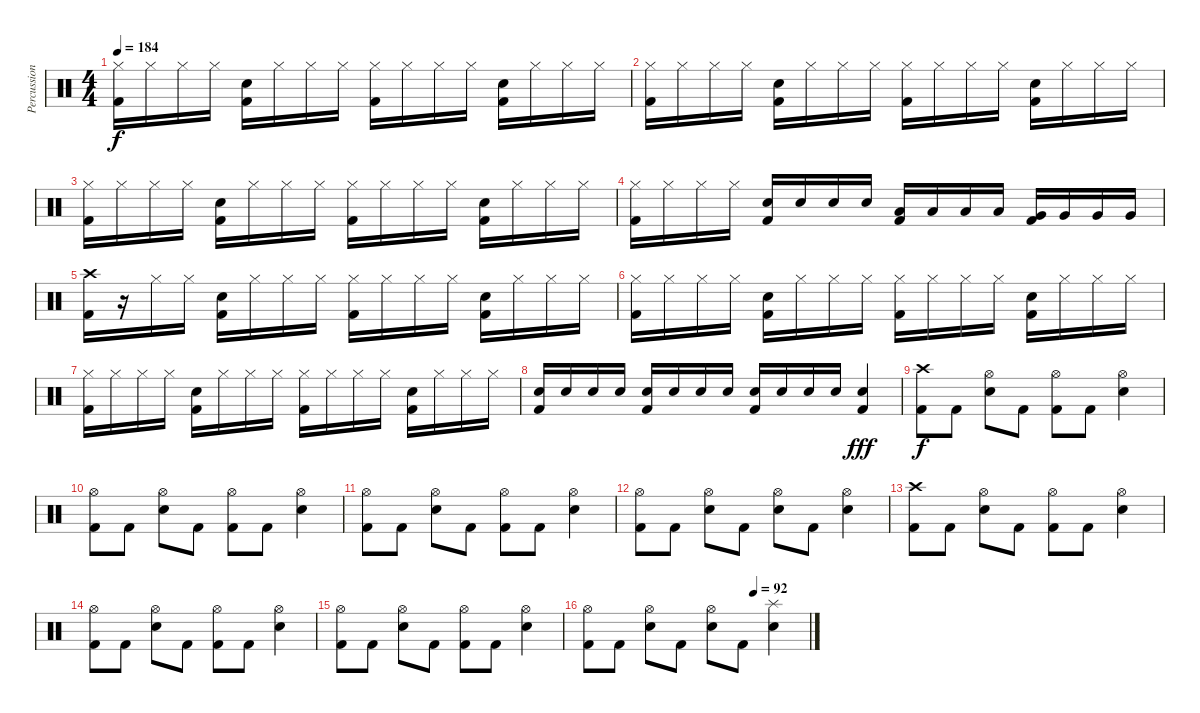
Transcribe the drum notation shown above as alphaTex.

\track ("Percussion" "Percussion") {instrument percussion}
\staff {score}
\articulation defaults
\ts (4 4)
\tempo 184
\clef neutral
\ks c
("Hi-Hat (closed)" "Kick (hit) 2").16{dy f} "Hi-Hat (closed)".16 "Hi-Hat (closed)".16 "Hi-Hat (closed)".16 ("Electric Snare (hit)" "Kick (hit) 2").16 "Hi-Hat (closed)".16 "Hi-Hat (closed)".16 "Hi-Hat (closed)".16 ("Hi-Hat (closed)" "Kick (hit) 2").16 "Hi-Hat (closed)".16 "Hi-Hat (closed)".16 "Hi-Hat (closed)".16 ("Electric Snare (hit)" "Kick (hit) 2").16 "Hi-Hat (closed)".16 "Hi-Hat (closed)".16 "Hi-Hat (closed)".16 |
("Hi-Hat (closed)" "Kick (hit) 2").16 "Hi-Hat (closed)".16 "Hi-Hat (closed)".16 "Hi-Hat (closed)".16 ("Electric Snare (hit)" "Kick (hit) 2").16 "Hi-Hat (closed)".16 "Hi-Hat (closed)".16 "Hi-Hat (closed)".16 ("Hi-Hat (closed)" "Kick (hit) 2").16 "Hi-Hat (closed)".16 "Hi-Hat (closed)".16 "Hi-Hat (closed)".16 ("Electric Snare (hit)" "Kick (hit) 2").16 "Hi-Hat (closed)".16 "Hi-Hat (closed)".16 "Hi-Hat (closed)".16 |
("Hi-Hat (closed)" "Kick (hit) 2").16 "Hi-Hat (closed)".16 "Hi-Hat (closed)".16 "Hi-Hat (closed)".16 ("Electric Snare (hit)" "Kick (hit) 2").16 "Hi-Hat (closed)".16 "Hi-Hat (closed)".16 "Hi-Hat (closed)".16 ("Hi-Hat (closed)" "Kick (hit) 2").16 "Hi-Hat (closed)".16 "Hi-Hat (closed)".16 "Hi-Hat (closed)".16 ("Electric Snare (hit)" "Kick (hit) 2").16 "Hi-Hat (closed)".16 "Hi-Hat (closed)".16 "Hi-Hat (closed)".16 |
("Hi-Hat (closed)" "Kick (hit) 2").16 "Hi-Hat (closed)".16 "Hi-Hat (closed)".16 "Hi-Hat (closed)".16 ("Electric Snare (hit)" "Kick (hit) 2").16 "Electric Snare (hit)".16 "Electric Snare (hit)".16 "Electric Snare (hit)".16 ("Low Tom (hit)" "Kick (hit) 2").16 "Low Tom (hit)".16 "Low Tom (hit)".16 "Low Tom (hit)".16 ("Very Low Tom (hit)" "Kick (hit) 2").16 "Very Low Tom (hit)".16 "Very Low Tom (hit)".16 "Very Low Tom (hit)".16 |
("Crash high (hit)" "Kick (hit) 2").16 r.16 "Hi-Hat (closed)".16 "Hi-Hat (closed)".16 ("Electric Snare (hit)" "Kick (hit) 2").16 "Hi-Hat (closed)".16 "Hi-Hat (closed)".16 "Hi-Hat (closed)".16 ("Hi-Hat (closed)" "Kick (hit) 2").16 "Hi-Hat (closed)".16 "Hi-Hat (closed)".16 "Hi-Hat (closed)".16 ("Electric Snare (hit)" "Kick (hit) 2").16 "Hi-Hat (closed)".16 "Hi-Hat (closed)".16 "Hi-Hat (closed)".16 |
("Hi-Hat (closed)" "Kick (hit) 2").16 "Hi-Hat (closed)".16 "Hi-Hat (closed)".16 "Hi-Hat (closed)".16 ("Electric Snare (hit)" "Kick (hit) 2").16 "Hi-Hat (closed)".16 "Hi-Hat (closed)".16 "Hi-Hat (closed)".16 ("Hi-Hat (closed)" "Kick (hit) 2").16 "Hi-Hat (closed)".16 "Hi-Hat (closed)".16 "Hi-Hat (closed)".16 ("Electric Snare (hit)" "Kick (hit) 2").16 "Hi-Hat (closed)".16 "Hi-Hat (closed)".16 "Hi-Hat (closed)".16 |
("Hi-Hat (closed)" "Kick (hit) 2").16 "Hi-Hat (closed)".16 "Hi-Hat (closed)".16 "Hi-Hat (closed)".16 ("Electric Snare (hit)" "Kick (hit) 2").16 "Hi-Hat (closed)".16 "Hi-Hat (closed)".16 "Hi-Hat (closed)".16 ("Hi-Hat (closed)" "Kick (hit) 2").16 "Hi-Hat (closed)".16 "Hi-Hat (closed)".16 "Hi-Hat (closed)".16 ("Electric Snare (hit)" "Kick (hit) 2").16 "Hi-Hat (closed)".16 "Hi-Hat (closed)".16 "Hi-Hat (closed)".16 |
("Electric Snare (hit)" "Kick (hit) 2").16 "Electric Snare (hit)".16 "Electric Snare (hit)".16 "Electric Snare (hit)".16 ("Electric Snare (hit)" "Kick (hit) 2").16 "Electric Snare (hit)".16 "Electric Snare (hit)".16 "Electric Snare (hit)".16 ("Electric Snare (hit)" "Kick (hit) 2").16 "Electric Snare (hit)".16 "Electric Snare (hit)".16 "Electric Snare (hit)".16 ("Electric Snare (hit)" "Kick (hit) 2").4{dy fff} |
("Crash high (hit)" "Kick (hit) 2").8{dy f} "Kick (hit) 2".8 ("Hi-Hat (open)" "Electric Snare (hit)").8 "Kick (hit) 2".8 ("Hi-Hat (open)" "Kick (hit) 2").8 "Kick (hit) 2".8 ("Hi-Hat (open)" "Electric Snare (hit)").4 |
("Hi-Hat (open)" "Kick (hit) 2").8 "Kick (hit) 2".8 ("Hi-Hat (open)" "Electric Snare (hit)").8 "Kick (hit) 2".8 ("Hi-Hat (open)" "Kick (hit) 2").8 "Kick (hit) 2".8 ("Hi-Hat (open)" "Electric Snare (hit)").4 |
("Hi-Hat (open)" "Kick (hit) 2").8 "Kick (hit) 2".8 ("Hi-Hat (open)" "Electric Snare (hit)").8 "Kick (hit) 2".8 ("Hi-Hat (open)" "Kick (hit) 2").8 "Kick (hit) 2".8 ("Hi-Hat (open)" "Electric Snare (hit)").4 |
("Hi-Hat (open)" "Kick (hit) 2").8 "Kick (hit) 2".8 ("Hi-Hat (open)" "Electric Snare (hit)").8 "Kick (hit) 2".8 ("Hi-Hat (open)" "Electric Snare (hit)").8 "Kick (hit) 2".8 ("Hi-Hat (open)" "Electric Snare (hit)").4 |
("Crash high (hit)" "Kick (hit) 2").8 "Kick (hit) 2".8 ("Hi-Hat (open)" "Electric Snare (hit)").8 "Kick (hit) 2".8 ("Hi-Hat (open)" "Kick (hit) 2").8 "Kick (hit) 2".8 ("Hi-Hat (open)" "Electric Snare (hit)").4 |
("Hi-Hat (open)" "Kick (hit) 2").8 "Kick (hit) 2".8 ("Hi-Hat (open)" "Electric Snare (hit)").8 "Kick (hit) 2".8 ("Hi-Hat (open)" "Kick (hit) 2").8 "Kick (hit) 2".8 ("Hi-Hat (open)" "Electric Snare (hit)").4 |
("Hi-Hat (open)" "Kick (hit) 2").8 "Kick (hit) 2".8 ("Hi-Hat (open)" "Electric Snare (hit)").8 "Kick (hit) 2".8 ("Hi-Hat (open)" "Kick (hit) 2").8 "Kick (hit) 2".8 ("Hi-Hat (open)" "Electric Snare (hit)").4 |
\tempo (92 0.75)
("Hi-Hat (open)" "Kick (hit) 2").8 "Kick (hit) 2".8 ("Hi-Hat (open)" "Electric Snare (hit)").8 "Kick (hit) 2".8 ("Hi-Hat (open)" "Electric Snare (hit)").8 "Kick (hit) 2".8 ("Splash (hit)" "Electric Snare (hit)").4
